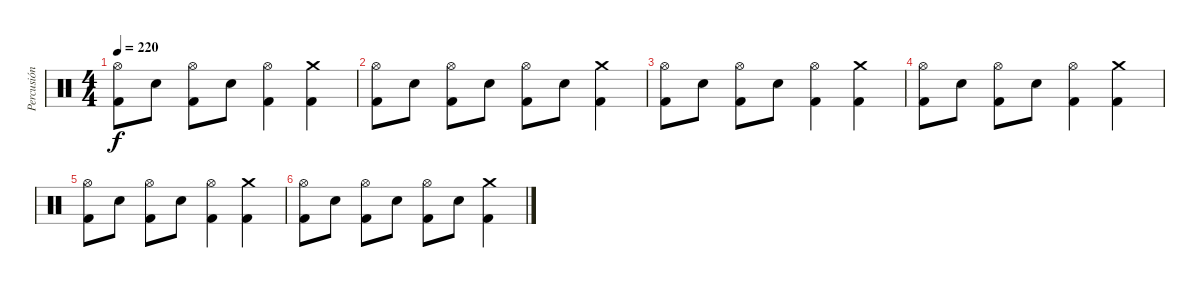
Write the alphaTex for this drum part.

\track ("Percusión" "Percusión") {instrument percussion}
\staff {score}
\articulation defaults
\ts (4 4)
\tempo 220
\clef neutral
\ks c
("Hi-Hat (open)" "Kick (hit) 2").8{dy f} "Snare (hit) 2".8 ("Hi-Hat (open)" "Kick (hit) 2").8 "Snare (hit) 2".8 ("Hi-Hat (open)" "Kick (hit) 2").4 ("Crash medium (hit)" "Kick (hit) 2").4 |
("Hi-Hat (open)" "Kick (hit) 2").8 "Snare (hit) 2".8 ("Hi-Hat (open)" "Kick (hit) 2").8 "Snare (hit) 2".8 ("Hi-Hat (open)" "Kick (hit) 2").8 "Snare (hit) 2".8 ("Crash medium (hit)" "Kick (hit) 2").4 |
("Hi-Hat (open)" "Kick (hit) 2").8 "Snare (hit) 2".8 ("Hi-Hat (open)" "Kick (hit) 2").8 "Snare (hit) 2".8 ("Hi-Hat (open)" "Kick (hit) 2").4 ("Crash medium (hit)" "Kick (hit) 2").4 |
("Hi-Hat (open)" "Kick (hit) 2").8 "Snare (hit) 2".8 ("Hi-Hat (open)" "Kick (hit) 2").8 "Snare (hit) 2".8 ("Hi-Hat (open)" "Kick (hit) 2").4 ("Crash medium (hit)" "Kick (hit) 2").4 |
("Hi-Hat (open)" "Kick (hit) 2").8 "Snare (hit) 2".8 ("Hi-Hat (open)" "Kick (hit) 2").8 "Snare (hit) 2".8 ("Hi-Hat (open)" "Kick (hit) 2").4 ("Crash medium (hit)" "Kick (hit) 2").4 |
("Hi-Hat (open)" "Kick (hit) 2").8 "Snare (hit) 2".8 ("Hi-Hat (open)" "Kick (hit) 2").8 "Snare (hit) 2".8 ("Hi-Hat (open)" "Kick (hit) 2").8 "Snare (hit) 2".8 ("Crash medium (hit)" "Kick (hit) 2").4
